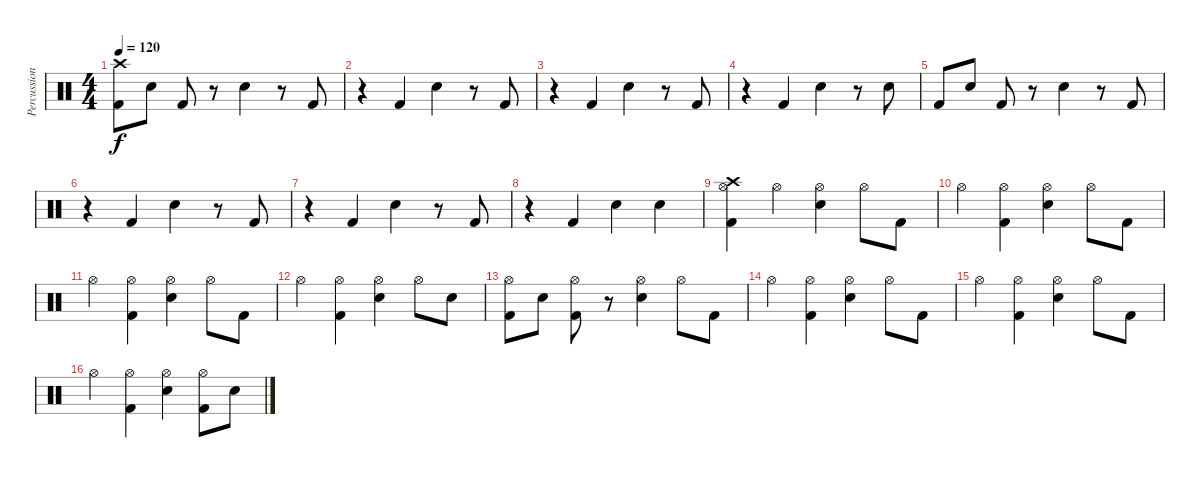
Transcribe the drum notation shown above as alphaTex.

\track ("Percussion" "Percussion") {instrument percussion}
\staff {score}
\articulation defaults
\ts (4 4)
\tempo 120
\clef neutral
\ks c
("Crash high (hit)" "Kick (hit) 2").8{dy f} "Electric Snare (hit)".8 "Kick (hit) 2".8 r.8 "Electric Snare (hit)".4 r.8 "Kick (hit) 2".8 |
r.4 "Kick (hit) 2".4 "Electric Snare (hit)".4 r.8 "Kick (hit) 2".8 |
r.4 "Kick (hit) 2".4 "Electric Snare (hit)".4 r.8 "Kick (hit) 2".8 |
r.4 "Kick (hit) 2".4 "Electric Snare (hit)".4 r.8 "Electric Snare (hit)".8 |
"Kick (hit) 2".8 "Electric Snare (hit)".8 "Kick (hit) 2".8 r.8 "Electric Snare (hit)".4 r.8 "Kick (hit) 2".8 |
r.4 "Kick (hit) 2".4 "Electric Snare (hit)".4 r.8 "Kick (hit) 2".8 |
r.4 "Kick (hit) 2".4 "Electric Snare (hit)".4 r.8 "Kick (hit) 2".8 |
r.4 "Kick (hit) 2".4 "Electric Snare (hit)".4 "Electric Snare (hit)".4 |
("Crash high (hit)" "Hi-Hat (open)" "Kick (hit) 2").4 "Hi-Hat (open)".4 ("Hi-Hat (open)" "Electric Snare (hit)").4 "Hi-Hat (open)".8 "Kick (hit) 2".8 |
"Hi-Hat (open)".4 ("Hi-Hat (open)" "Kick (hit) 2").4 ("Hi-Hat (open)" "Electric Snare (hit)").4 "Hi-Hat (open)".8 "Kick (hit) 2".8 |
"Hi-Hat (open)".4 ("Hi-Hat (open)" "Kick (hit) 2").4 ("Hi-Hat (open)" "Electric Snare (hit)").4 "Hi-Hat (open)".8 "Kick (hit) 2".8 |
"Hi-Hat (open)".4 ("Hi-Hat (open)" "Kick (hit) 2").4 ("Hi-Hat (open)" "Electric Snare (hit)").4 "Hi-Hat (open)".8 "Electric Snare (hit)".8 |
("Hi-Hat (open)" "Kick (hit) 2").8 "Electric Snare (hit)".8 ("Hi-Hat (open)" "Kick (hit) 2").8 r.8 ("Hi-Hat (open)" "Electric Snare (hit)").4 "Hi-Hat (open)".8 "Kick (hit) 2".8 |
"Hi-Hat (open)".4 ("Hi-Hat (open)" "Kick (hit) 2").4 ("Hi-Hat (open)" "Electric Snare (hit)").4 "Hi-Hat (open)".8 "Kick (hit) 2".8 |
"Hi-Hat (open)".4 ("Hi-Hat (open)" "Kick (hit) 2").4 ("Hi-Hat (open)" "Electric Snare (hit)").4 "Hi-Hat (open)".8 "Kick (hit) 2".8 |
"Hi-Hat (open)".4 ("Hi-Hat (open)" "Kick (hit) 2").4 ("Hi-Hat (open)" "Electric Snare (hit)").4 ("Hi-Hat (open)" "Kick (hit) 2").8 "Electric Snare (hit)".8
